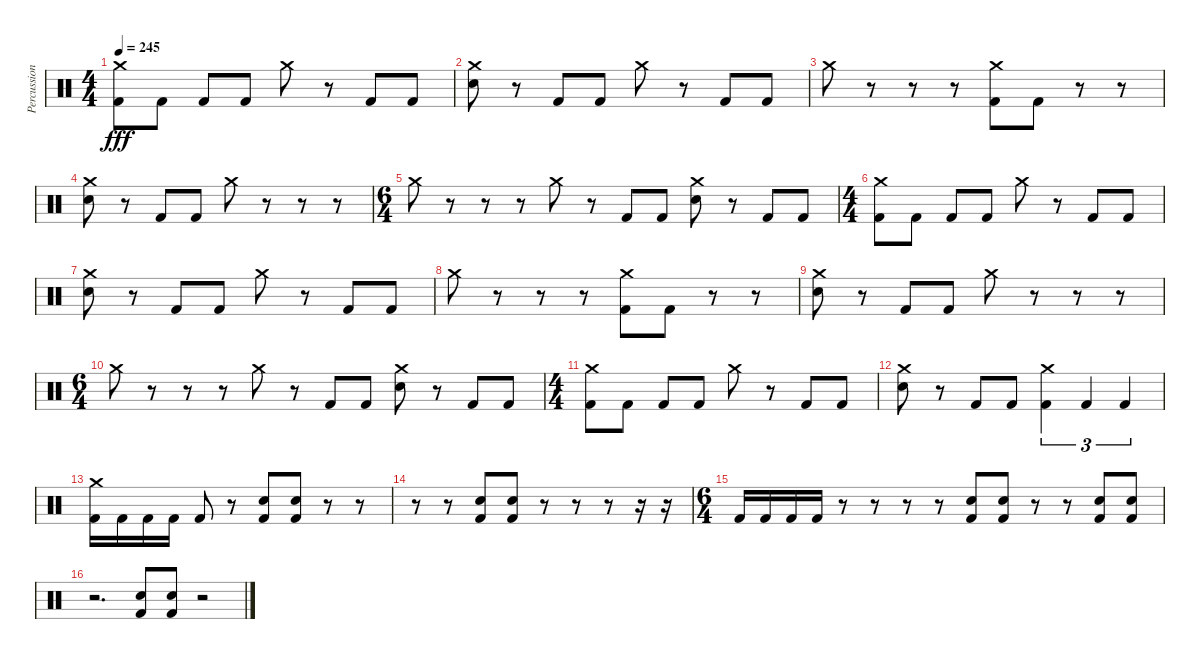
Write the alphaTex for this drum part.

\track ("Percussion" "Percussion") {instrument percussion bank 177}
\staff {score}
\articulation defaults
\ts (4 4)
\tempo 245
\clef neutral
\ks c
("Crash medium (hit)" "Kick (hit) 2").8{dy fff} "Kick (hit) 2".8 "Kick (hit) 2".8 "Kick (hit) 2".8 "Crash medium (hit)".8 r.8 "Kick (hit) 2".8 "Kick (hit) 2".8 |
("Crash medium (hit)" "Electric Snare (hit)").8 r.8 "Kick (hit) 2".8 "Kick (hit) 2".8 "Crash medium (hit)".8 r.8 "Kick (hit) 2".8 "Kick (hit) 2".8 |
"Crash medium (hit)".8 r.8 r.8 r.8 ("Crash medium (hit)" "Kick (hit) 2").8 "Kick (hit) 2".8 r.8 r.8 |
("Crash medium (hit)" "Electric Snare (hit)").8 r.8 "Kick (hit) 2".8 "Kick (hit) 2".8 "Crash medium (hit)".8 r.8 r.8 r.8 |
\ts (6 4)
"Crash medium (hit)".8 r.8 r.8 r.8 "Crash medium (hit)".8 r.8 "Kick (hit) 2".8 "Kick (hit) 2".8 ("Crash medium (hit)" "Electric Snare (hit)").8 r.8 "Kick (hit) 2".8 "Kick (hit) 2".8 |
\ts (4 4)
("Crash medium (hit)" "Kick (hit) 2").8 "Kick (hit) 2".8 "Kick (hit) 2".8 "Kick (hit) 2".8 "Crash medium (hit)".8 r.8 "Kick (hit) 2".8 "Kick (hit) 2".8 |
("Crash medium (hit)" "Electric Snare (hit)").8 r.8 "Kick (hit) 2".8 "Kick (hit) 2".8 "Crash medium (hit)".8 r.8 "Kick (hit) 2".8 "Kick (hit) 2".8 |
"Crash medium (hit)".8 r.8 r.8 r.8 ("Crash medium (hit)" "Kick (hit) 2").8 "Kick (hit) 2".8 r.8 r.8 |
("Crash medium (hit)" "Electric Snare (hit)").8 r.8 "Kick (hit) 2".8 "Kick (hit) 2".8 "Crash medium (hit)".8 r.8 r.8 r.8 |
\ts (6 4)
"Crash medium (hit)".8 r.8 r.8 r.8 "Crash medium (hit)".8 r.8 "Kick (hit) 2".8 "Kick (hit) 2".8 ("Crash medium (hit)" "Electric Snare (hit)").8 r.8 "Kick (hit) 2".8 "Kick (hit) 2".8 |
\ts (4 4)
("Crash medium (hit)" "Kick (hit) 2").8 "Kick (hit) 2".8 "Kick (hit) 2".8 "Kick (hit) 2".8 "Crash medium (hit)".8 r.8 "Kick (hit) 2".8 "Kick (hit) 2".8 |
("Crash medium (hit)" "Electric Snare (hit)").8 r.8 "Kick (hit) 2".8 "Kick (hit) 2".8 ("Crash medium (hit)" "Kick (hit) 2").4{tu (3 2)} "Kick (hit) 2".4{tu (3 2)} "Kick (hit) 2".4{tu (3 2)} |
("Crash medium (hit)" "Kick (hit) 2").16 "Kick (hit) 2".16 "Kick (hit) 2".16 "Kick (hit) 2".16 "Kick (hit) 2".8 r.8 ("Electric Snare (hit)" "Kick (hit) 2").8 ("Electric Snare (hit)" "Kick (hit) 2").8 r.8 r.8 |
r.8 r.8 ("Electric Snare (hit)" "Kick (hit) 2").8 ("Electric Snare (hit)" "Kick (hit) 2").8 r.8 r.8 r.8 r.16 r.16 |
\ts (6 4)
"Kick (hit) 2".16 "Kick (hit) 2".16 "Kick (hit) 2".16 "Kick (hit) 2".16 r.8 r.8 r.8 r.8 ("Electric Snare (hit)" "Kick (hit) 2").8 ("Electric Snare (hit)" "Kick (hit) 2").8 r.8 r.8 ("Electric Snare (hit)" "Kick (hit) 2").8 ("Electric Snare (hit)" "Kick (hit) 2").8 |
r.2{d} ("Kick (hit) 2" "Electric Snare (hit)").8 ("Kick (hit) 2" "Electric Snare (hit)").8 r.2
